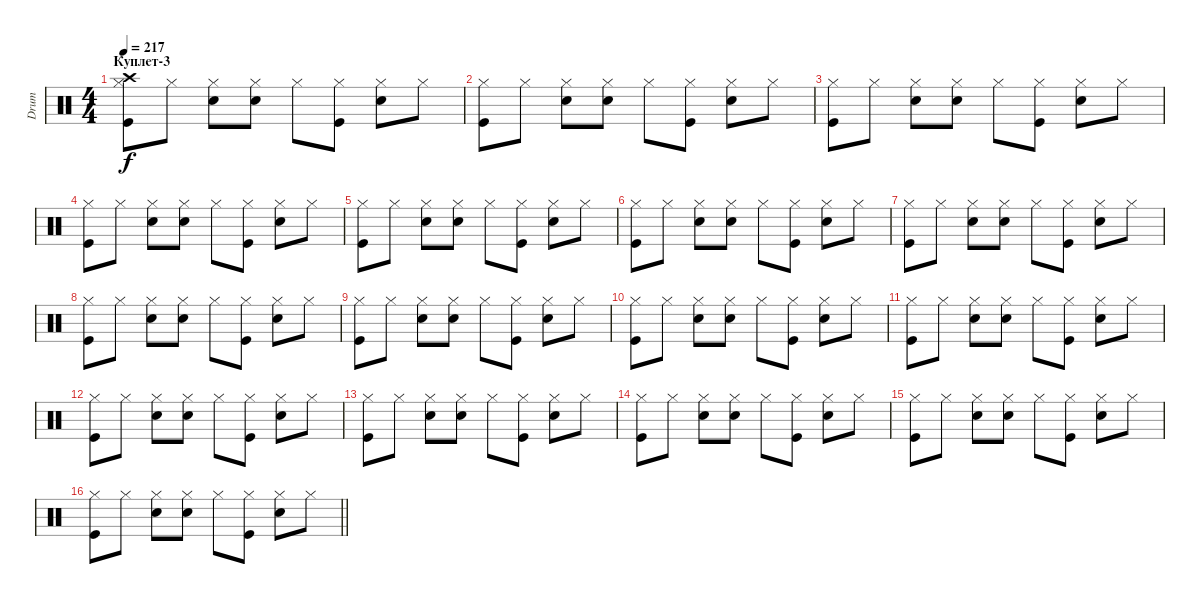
\track ("Drum" "Drum") {instrument percussion}
\staff {score}
\articulation defaults
\ts (4 4)
\section ("" "Куплет-3")
\tempo 217
\clef neutral
\ks c
("Kick (hit)" "Hi-Hat (closed)" "Crash high (hit)").8{dy f} "Hi-Hat (closed)".8 ("Snare (hit) 2" "Hi-Hat (closed)").8 ("Snare (hit) 2" "Hi-Hat (closed)").8 "Hi-Hat (closed)".8 ("Kick (hit)" "Hi-Hat (closed)").8 ("Snare (hit) 2" "Hi-Hat (closed)").8 "Hi-Hat (closed)".8 |
("Kick (hit)" "Hi-Hat (closed)").8 "Hi-Hat (closed)".8 ("Snare (hit) 2" "Hi-Hat (closed)").8 ("Snare (hit) 2" "Hi-Hat (closed)").8 "Hi-Hat (closed)".8 ("Kick (hit)" "Hi-Hat (closed)").8 ("Snare (hit) 2" "Hi-Hat (closed)").8 "Hi-Hat (closed)".8 |
("Kick (hit)" "Hi-Hat (closed)").8 "Hi-Hat (closed)".8 ("Snare (hit) 2" "Hi-Hat (closed)").8 ("Snare (hit) 2" "Hi-Hat (closed)").8 "Hi-Hat (closed)".8 ("Kick (hit)" "Hi-Hat (closed)").8 ("Snare (hit) 2" "Hi-Hat (closed)").8 "Hi-Hat (closed)".8 |
("Kick (hit)" "Hi-Hat (closed)").8 "Hi-Hat (closed)".8 ("Snare (hit) 2" "Hi-Hat (closed)").8 ("Snare (hit) 2" "Hi-Hat (closed)").8 "Hi-Hat (closed)".8 ("Kick (hit)" "Hi-Hat (closed)").8 ("Snare (hit) 2" "Hi-Hat (closed)").8 "Hi-Hat (closed)".8 |
("Kick (hit)" "Hi-Hat (closed)").8 "Hi-Hat (closed)".8 ("Snare (hit) 2" "Hi-Hat (closed)").8 ("Snare (hit) 2" "Hi-Hat (closed)").8 "Hi-Hat (closed)".8 ("Kick (hit)" "Hi-Hat (closed)").8 ("Snare (hit) 2" "Hi-Hat (closed)").8 "Hi-Hat (closed)".8 |
("Kick (hit)" "Hi-Hat (closed)").8 "Hi-Hat (closed)".8 ("Snare (hit) 2" "Hi-Hat (closed)").8 ("Snare (hit) 2" "Hi-Hat (closed)").8 "Hi-Hat (closed)".8 ("Kick (hit)" "Hi-Hat (closed)").8 ("Snare (hit) 2" "Hi-Hat (closed)").8 "Hi-Hat (closed)".8 |
("Kick (hit)" "Hi-Hat (closed)").8 "Hi-Hat (closed)".8 ("Snare (hit) 2" "Hi-Hat (closed)").8 ("Snare (hit) 2" "Hi-Hat (closed)").8 "Hi-Hat (closed)".8 ("Kick (hit)" "Hi-Hat (closed)").8 ("Snare (hit) 2" "Hi-Hat (closed)").8 "Hi-Hat (closed)".8 |
("Kick (hit)" "Hi-Hat (closed)").8 "Hi-Hat (closed)".8 ("Snare (hit) 2" "Hi-Hat (closed)").8 ("Snare (hit) 2" "Hi-Hat (closed)").8 "Hi-Hat (closed)".8 ("Kick (hit)" "Hi-Hat (closed)").8 ("Snare (hit) 2" "Hi-Hat (closed)").8 "Hi-Hat (closed)".8 |
("Kick (hit)" "Hi-Hat (closed)").8 "Hi-Hat (closed)".8 ("Snare (hit) 2" "Hi-Hat (closed)").8 ("Snare (hit) 2" "Hi-Hat (closed)").8 "Hi-Hat (closed)".8 ("Kick (hit)" "Hi-Hat (closed)").8 ("Snare (hit) 2" "Hi-Hat (closed)").8 "Hi-Hat (closed)".8 |
("Kick (hit)" "Hi-Hat (closed)").8 "Hi-Hat (closed)".8 ("Snare (hit) 2" "Hi-Hat (closed)").8 ("Snare (hit) 2" "Hi-Hat (closed)").8 "Hi-Hat (closed)".8 ("Kick (hit)" "Hi-Hat (closed)").8 ("Snare (hit) 2" "Hi-Hat (closed)").8 "Hi-Hat (closed)".8 |
("Kick (hit)" "Hi-Hat (closed)").8 "Hi-Hat (closed)".8 ("Snare (hit) 2" "Hi-Hat (closed)").8 ("Snare (hit) 2" "Hi-Hat (closed)").8 "Hi-Hat (closed)".8 ("Kick (hit)" "Hi-Hat (closed)").8 ("Snare (hit) 2" "Hi-Hat (closed)").8 "Hi-Hat (closed)".8 |
("Kick (hit)" "Hi-Hat (closed)").8 "Hi-Hat (closed)".8 ("Snare (hit) 2" "Hi-Hat (closed)").8 ("Snare (hit) 2" "Hi-Hat (closed)").8 "Hi-Hat (closed)".8 ("Kick (hit)" "Hi-Hat (closed)").8 ("Snare (hit) 2" "Hi-Hat (closed)").8 "Hi-Hat (closed)".8 |
("Kick (hit)" "Hi-Hat (closed)").8 "Hi-Hat (closed)".8 ("Snare (hit) 2" "Hi-Hat (closed)").8 ("Snare (hit) 2" "Hi-Hat (closed)").8 "Hi-Hat (closed)".8 ("Kick (hit)" "Hi-Hat (closed)").8 ("Snare (hit) 2" "Hi-Hat (closed)").8 "Hi-Hat (closed)".8 |
("Kick (hit)" "Hi-Hat (closed)").8 "Hi-Hat (closed)".8 ("Snare (hit) 2" "Hi-Hat (closed)").8 ("Snare (hit) 2" "Hi-Hat (closed)").8 "Hi-Hat (closed)".8 ("Kick (hit)" "Hi-Hat (closed)").8 ("Snare (hit) 2" "Hi-Hat (closed)").8 "Hi-Hat (closed)".8 |
("Kick (hit)" "Hi-Hat (closed)").8 "Hi-Hat (closed)".8 ("Snare (hit) 2" "Hi-Hat (closed)").8 ("Snare (hit) 2" "Hi-Hat (closed)").8 "Hi-Hat (closed)".8 ("Kick (hit)" "Hi-Hat (closed)").8 ("Snare (hit) 2" "Hi-Hat (closed)").8 "Hi-Hat (closed)".8 |
\barLineRight lightlight
("Kick (hit)" "Hi-Hat (closed)").8 "Hi-Hat (closed)".8 ("Snare (hit) 2" "Hi-Hat (closed)").8 ("Snare (hit) 2" "Hi-Hat (closed)").8 "Hi-Hat (closed)".8 ("Kick (hit)" "Hi-Hat (closed)").8 ("Snare (hit) 2" "Hi-Hat (closed)").8 "Hi-Hat (closed)".8
